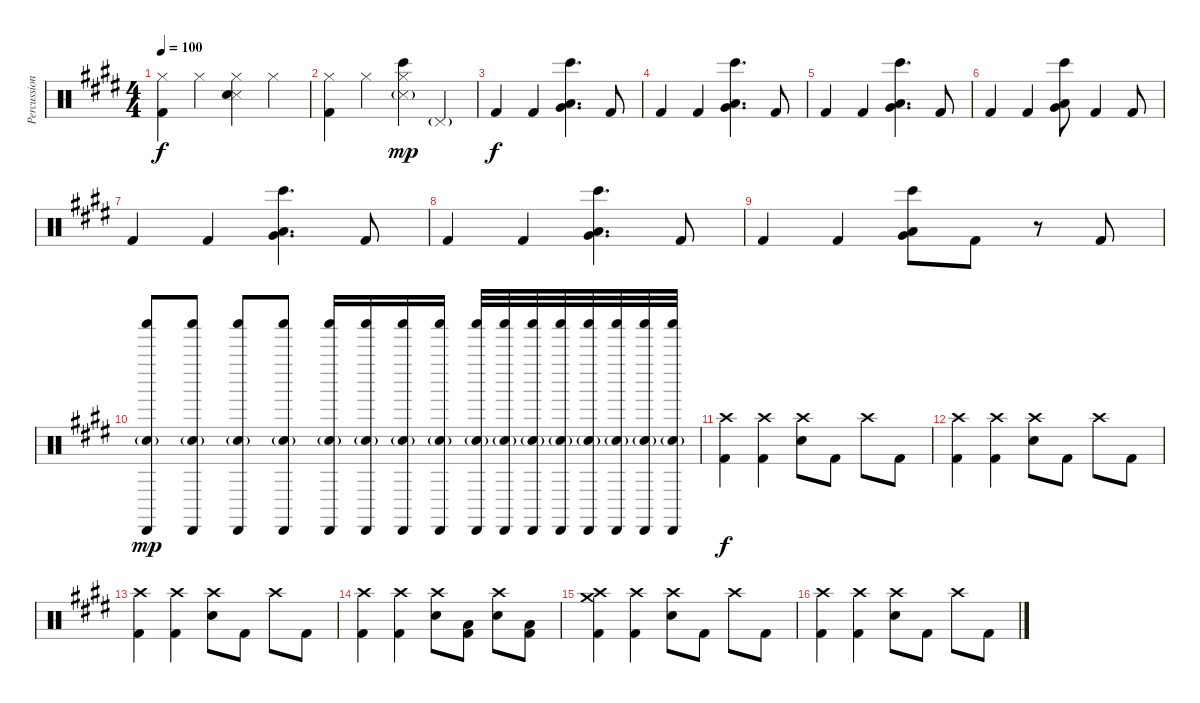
\track ("Percussion" "Percussion") {instrument percussion}
\staff {score}
\articulation defaults
\ts (4 4)
\tempo 100
\clef neutral
\ks e
("Hi-Hat (closed)" "Kick (hit) 2").4{dy f} "Hi-Hat (closed)".4 ("Hi-Hat (closed)" "Snare (side stick) 3" "Snare (hit) 2").4 "Hi-Hat (closed)".4 |
("Hi-Hat (closed)" "Kick (hit) 2").4 "Hi-Hat (closed)".4 ("Hi-Hat (closed)" "Snare (side stick) 3"{g} "Bongo High (hit)").4{dy mp} "Pedal Hi-Hat (hit)"{g}.4 |
"Kick (hit) 2".4{dy f volume 13} "Kick (hit) 2".4 ("Bongo High (hit)" "Very Low Tom (hit)" "Low Floor Tom (hit)").4{d} "Kick (hit) 2".8 |
"Kick (hit) 2".4 "Kick (hit) 2".4 ("Bongo High (hit)" "Very Low Tom (hit)" "Low Floor Tom (hit)").4{d} "Kick (hit) 2".8 |
"Kick (hit) 2".4 "Kick (hit) 2".4 ("Bongo High (hit)" "Very Low Tom (hit)" "Low Floor Tom (hit)").4{d} "Kick (hit) 2".8 |
"Kick (hit) 2".4 "Kick (hit) 2".4 ("Bongo High (hit)" "Very Low Tom (hit)" "Low Floor Tom (hit)").8 "Kick (hit) 2".4 "Kick (hit) 2".8 |
"Kick (hit) 2".4 "Kick (hit) 2".4 ("Bongo High (hit)" "Very Low Tom (hit)" "Low Floor Tom (hit)").4{d} "Kick (hit) 2".8 |
"Kick (hit) 2".4 "Kick (hit) 2".4 ("Bongo High (hit)" "Very Low Tom (hit)" "Low Floor Tom (hit)").4{d} "Kick (hit) 2".8 |
"Kick (hit) 2".4 "Kick (hit) 2".4 ("Bongo High (hit)" "Very Low Tom (hit)" "Low Floor Tom (hit)").8 "Kick (hit) 2".8 r.8 "Kick (hit) 2".8 |
("Cabasa (hit)" "Shaker (hit)" "Electric Snare (hit)"{g}).8{dy mp} ("Cabasa (hit)" "Shaker (hit)" "Electric Snare (hit)"{g}).8 ("Cabasa (hit)" "Shaker (hit)" "Electric Snare (hit)"{g}).8 ("Cabasa (hit)" "Shaker (hit)" "Electric Snare (hit)"{g}).8 ("Cabasa (hit)" "Shaker (hit)" "Electric Snare (hit)"{g}).16 ("Cabasa (hit)" "Shaker (hit)" "Electric Snare (hit)"{g}).16 ("Cabasa (hit)" "Shaker (hit)" "Electric Snare (hit)"{g}).16 ("Cabasa (hit)" "Shaker (hit)" "Electric Snare (hit)"{g}).16 ("Cabasa (hit)" "Shaker (hit)" "Electric Snare (hit)"{g}).32 ("Cabasa (hit)" "Shaker (hit)" "Electric Snare (hit)"{g}).32 ("Cabasa (hit)" "Shaker (hit)" "Electric Snare (hit)"{g}).32 ("Cabasa (hit)" "Shaker (hit)" "Electric Snare (hit)"{g}).32 ("Cabasa (hit)" "Shaker (hit)" "Electric Snare (hit)"{g}).32 ("Cabasa (hit)" "Shaker (hit)" "Electric Snare (hit)"{g}).32 ("Cabasa (hit)" "Shaker (hit)" "Electric Snare (hit)"{g}).32 ("Cabasa (hit)" "Shaker (hit)" "Electric Snare (hit)"{g}).32 |
("Crash high (hit)" "Kick (hit) 2").4{dy f} ("Crash high (hit)" "Kick (hit) 2").4 ("Crash high (hit)" "Snare (hit) 2").8 "Kick (hit) 2".8 "Crash high (hit)".8 "Kick (hit) 2".8 |
("Crash high (hit)" "Kick (hit) 2").4 ("Crash high (hit)" "Kick (hit) 2").4 ("Crash high (hit)" "Snare (hit) 2").8 "Kick (hit) 2".8 "Crash high (hit)".8 "Kick (hit) 2".8 |
("Crash high (hit)" "Kick (hit) 2").4 ("Crash high (hit)" "Kick (hit) 2").4 ("Crash high (hit)" "Snare (hit) 2").8 "Kick (hit) 2".8 "Crash high (hit)".8 "Kick (hit) 2".8 |
("Crash high (hit)" "Kick (hit) 2").4 ("Crash high (hit)" "Kick (hit) 2").4 ("Crash high (hit)" "Snare (hit) 2").8 ("Low Tom (hit)" "Kick (hit) 2").8 ("Crash high (hit)" "Snare (hit) 2").8 ("Low Tom (hit)" "Kick (hit) 2").8 |
("Crash medium (hit)" "Crash high (hit)" "Kick (hit) 2").4 ("Crash high (hit)" "Kick (hit) 2").4 ("Crash high (hit)" "Snare (hit) 2").8 "Kick (hit) 2".8 "Crash high (hit)".8 "Kick (hit) 2".8 |
("Crash high (hit)" "Kick (hit) 2").4 ("Crash high (hit)" "Kick (hit) 2").4 ("Crash high (hit)" "Snare (hit) 2").8 "Kick (hit) 2".8 "Crash high (hit)".8 "Kick (hit) 2".8
